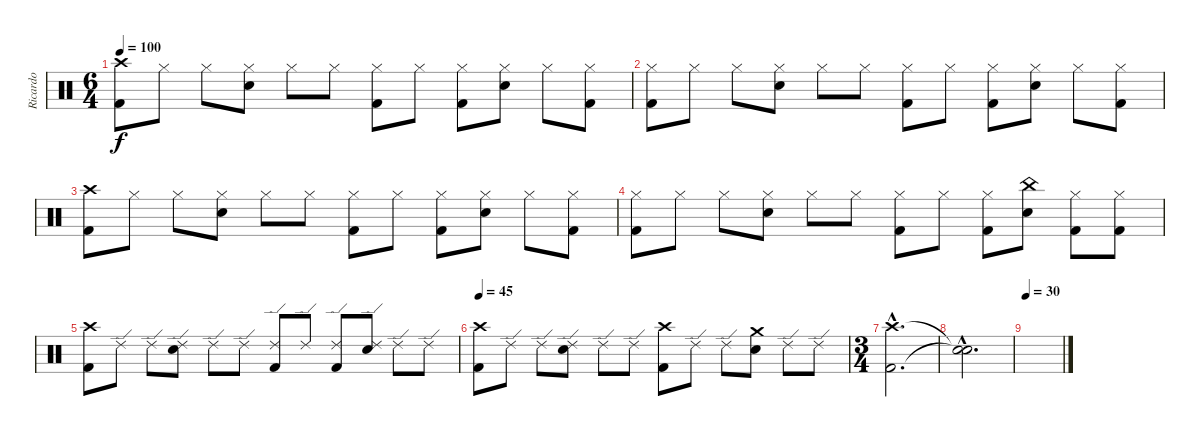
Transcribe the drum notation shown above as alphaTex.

\track ("Ricardo" "Ricardo") {instrument percussion}
\staff {score}
\articulation defaults
\ts (6 4)
\tempo 100
\clef neutral
\ks c
("Crash high (hit)" "Kick (hit) 2").8{dy f} "Hi-Hat (closed)".8 "Hi-Hat (closed)".8 ("Hi-Hat (closed)" "Electric Snare (hit)").8 "Hi-Hat (closed)".8 "Hi-Hat (closed)".8 ("Hi-Hat (closed)" "Kick (hit) 2").8 "Hi-Hat (closed)".8 ("Hi-Hat (closed)" "Kick (hit) 2").8 ("Hi-Hat (closed)" "Electric Snare (hit)").8 "Hi-Hat (closed)".8 ("Hi-Hat (closed)" "Kick (hit) 2").8 |
("Hi-Hat (closed)" "Kick (hit) 2").8 "Hi-Hat (closed)".8 "Hi-Hat (closed)".8 ("Hi-Hat (closed)" "Electric Snare (hit)").8 "Hi-Hat (closed)".8 "Hi-Hat (closed)".8 ("Hi-Hat (closed)" "Kick (hit) 2").8 "Hi-Hat (closed)".8 ("Hi-Hat (closed)" "Kick (hit) 2").8 ("Hi-Hat (closed)" "Electric Snare (hit)").8 "Hi-Hat (closed)".8 ("Hi-Hat (closed)" "Kick (hit) 2").8 |
("Crash high (hit)" "Kick (hit) 2").8 "Hi-Hat (closed)".8 "Hi-Hat (closed)".8 ("Hi-Hat (closed)" "Electric Snare (hit)").8 "Hi-Hat (closed)".8 "Hi-Hat (closed)".8 ("Hi-Hat (closed)" "Kick (hit) 2").8 "Hi-Hat (closed)".8 ("Hi-Hat (closed)" "Kick (hit) 2").8 ("Hi-Hat (closed)" "Electric Snare (hit)").8 "Hi-Hat (closed)".8 ("Hi-Hat (closed)" "Kick (hit) 2").8 |
("Hi-Hat (closed)" "Kick (hit) 2").8 "Hi-Hat (closed)".8 "Hi-Hat (closed)".8 ("Hi-Hat (closed)" "Electric Snare (hit)").8 "Hi-Hat (closed)".8 "Hi-Hat (closed)".8 ("Hi-Hat (closed)" "Kick (hit) 2").8 "Hi-Hat (closed)".8 ("Hi-Hat (closed)" "Kick (hit) 2").8 ("China (hit)" "Electric Snare (hit)").8 ("Hi-Hat (closed)" "Kick (hit) 2").8 ("Hi-Hat (closed)" "Kick (hit) 2").8 |
("Crash high (hit)" "Kick (hit) 2").8 "Ride (edge) 2".8 "Ride (edge) 2".8 ("Ride (edge) 2" "Electric Snare (hit)").8 "Ride (edge) 2".8 "Ride (edge) 2".8 ("Ride (edge) 2" "Kick (hit) 2").8 "Ride (edge) 2".8 ("Ride (edge) 2" "Kick (hit) 2").8 ("Ride (edge) 2" "Electric Snare (hit)").8 "Ride (edge) 2".8 "Ride (edge) 2".8 |
\tempo 45
("Crash high (hit)" "Kick (hit) 2").8 "Ride (edge) 2".8 "Ride (edge) 2".8 ("Ride (edge) 2" "Electric Snare (hit)").8 "Ride (edge) 2".8 "Ride (edge) 2".8 ("Crash high (hit)" "Kick (hit) 2").8 "Ride (edge) 2".8 "Ride (edge) 2".8 ("Crash medium (hit)" "Electric Snare (hit)").8 "Ride (edge) 2".8 "Ride (edge) 2".8 |
\ts (3 4)
("Crash high (hit)"{hac} "Kick (hit) 2"{hac}).2{d} |
("Snare (hit)"{hac t} "Snare (hit)"{hac t}).2{d} |
\tempo 30
